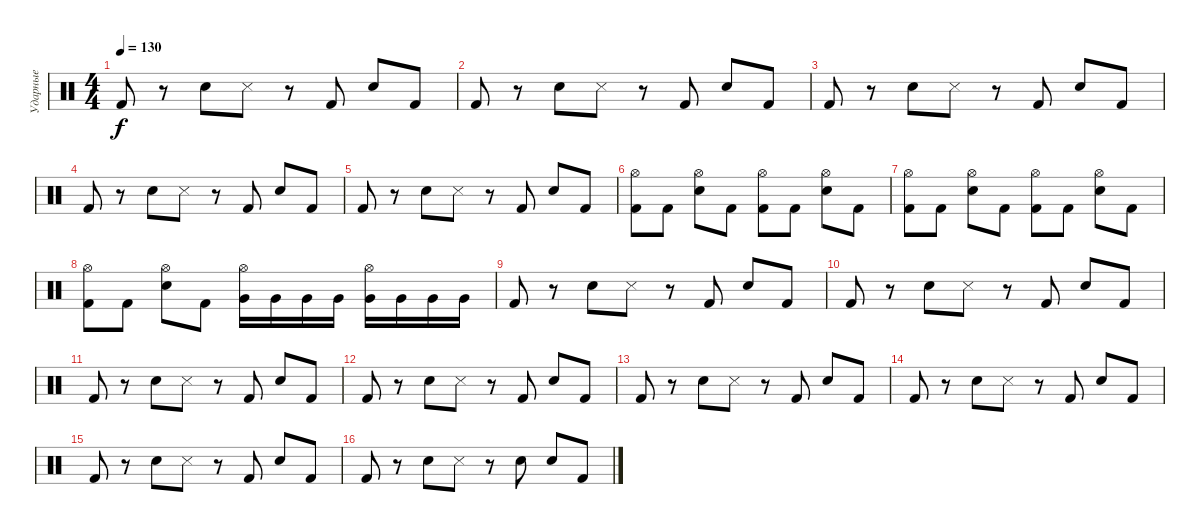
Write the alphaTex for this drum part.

\track ("Ударные" "Ударные") {instrument percussion}
\staff {score}
\articulation defaults
\ts (4 4)
\tempo 130
\clef neutral
\ks c "Kick (hit) 2".8{dy f}
r.8 "Electric Snare (hit)".8 "Snare (side stick) 3".8 r.8 "Kick (hit) 2".8 "Electric Snare (hit)".8 "Kick (hit) 2".8 |
"Kick (hit) 2".8 r.8 "Electric Snare (hit)".8 "Snare (side stick) 3".8 r.8 "Kick (hit) 2".8 "Electric Snare (hit)".8 "Kick (hit) 2".8 |
"Kick (hit) 2".8 r.8 "Electric Snare (hit)".8 "Snare (side stick) 3".8 r.8 "Kick (hit) 2".8 "Electric Snare (hit)".8 "Kick (hit) 2".8 |
"Kick (hit) 2".8 r.8 "Electric Snare (hit)".8 "Snare (side stick) 3".8 r.8 "Kick (hit) 2".8 "Electric Snare (hit)".8 "Kick (hit) 2".8 |
"Kick (hit) 2".8 r.8 "Electric Snare (hit)".8 "Snare (side stick) 3".8 r.8 "Kick (hit) 2".8 "Electric Snare (hit)".8 "Kick (hit) 2".8 |
("Hi-Hat (open)" "Kick (hit) 2").8 "Kick (hit) 2".8 ("Hi-Hat (open)" "Electric Snare (hit)").8 "Kick (hit) 2".8 ("Hi-Hat (open)" "Kick (hit) 2").8 "Kick (hit) 2".8 ("Electric Snare (hit)" "Hi-Hat (open)").8 "Kick (hit) 2".8 |
("Hi-Hat (open)" "Kick (hit) 2").8 "Kick (hit) 2".8 ("Electric Snare (hit)" "Hi-Hat (open)").8 "Kick (hit) 2".8 ("Hi-Hat (open)" "Kick (hit) 2").8 "Kick (hit) 2".8 ("Hi-Hat (open)" "Electric Snare (hit)").8 "Kick (hit) 2".8 |
("Kick (hit) 2" "Hi-Hat (open)").8 "Kick (hit) 2".8 ("Electric Snare (hit)" "Hi-Hat (open)").8 "Kick (hit) 2".8 ("Very Low Tom (hit)" "Hi-Hat (open)").16 "Very Low Tom (hit)".16 "Very Low Tom (hit)".16 "Very Low Tom (hit)".16 ("Hi-Hat (open)" "Very Low Tom (hit)").16 "Very Low Tom (hit)".16 "Very Low Tom (hit)".16 "Very Low Tom (hit)".16 |
"Kick (hit) 2".8 r.8 "Electric Snare (hit)".8 "Snare (side stick) 3".8 r.8 "Kick (hit) 2".8 "Electric Snare (hit)".8 "Kick (hit) 2".8 |
"Kick (hit) 2".8 r.8 "Electric Snare (hit)".8 "Snare (side stick) 3".8 r.8 "Kick (hit) 2".8 "Electric Snare (hit)".8 "Kick (hit) 2".8 |
"Kick (hit) 2".8 r.8 "Electric Snare (hit)".8 "Snare (side stick) 3".8 r.8 "Kick (hit) 2".8 "Electric Snare (hit)".8 "Kick (hit) 2".8 |
"Kick (hit) 2".8 r.8 "Electric Snare (hit)".8 "Snare (side stick) 3".8 r.8 "Kick (hit) 2".8 "Electric Snare (hit)".8 "Kick (hit) 2".8 |
"Kick (hit) 2".8 r.8 "Electric Snare (hit)".8 "Snare (side stick) 3".8 r.8 "Kick (hit) 2".8 "Electric Snare (hit)".8 "Kick (hit) 2".8 |
"Kick (hit) 2".8 r.8 "Electric Snare (hit)".8 "Snare (side stick) 3".8 r.8 "Kick (hit) 2".8 "Electric Snare (hit)".8 "Kick (hit) 2".8 |
"Kick (hit) 2".8 r.8 "Electric Snare (hit)".8 "Snare (side stick) 3".8 r.8 "Kick (hit) 2".8 "Electric Snare (hit)".8 "Kick (hit) 2".8 |
"Kick (hit) 2".8 r.8 "Electric Snare (hit)".8 "Snare (side stick) 3".8 r.8 "Electric Snare (hit)".8 "Electric Snare (hit)".8 "Kick (hit) 2".8
